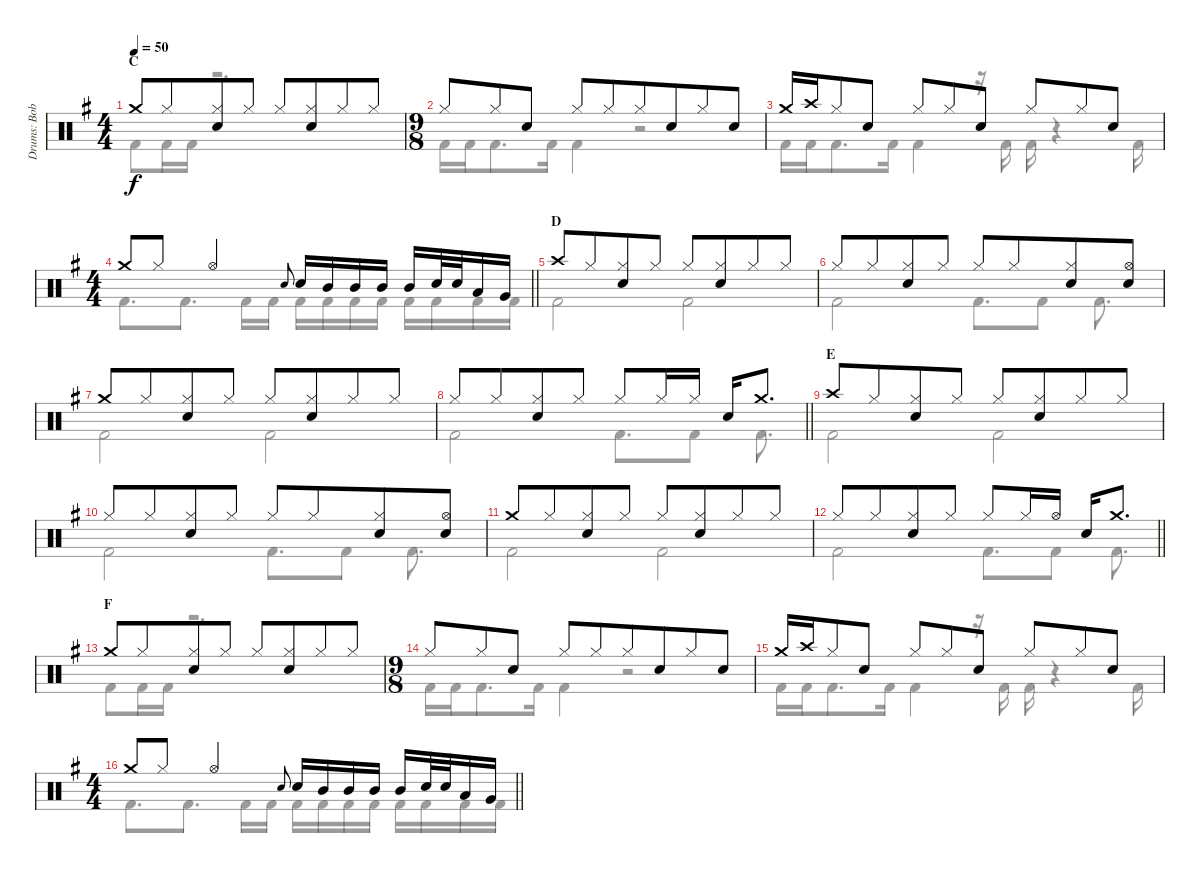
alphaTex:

\track ("Drums: Bobby" "Drums: Bob") {instrument percussion}
\staff {score}
\articulation defaults
\voice
\ts (4 4)
\section ("" "C")
\tempo 50
\clef neutral
\ks g "Crash medium (hit)".8{dy f} "Hi-Hat (closed)".8{beam merge}
("Hi-Hat (closed)" "Snare (hit) 2").8 "Hi-Hat (closed)".8 "Hi-Hat (closed)".8 ("Hi-Hat (closed)" "Snare (hit) 2").8{beam merge} "Hi-Hat (closed)".8 "Hi-Hat (closed)".8 |
\ts (9 8)
"Hi-Hat (closed)".8 "Hi-Hat (closed)".8{beam merge} "Snare (hit) 2".8 "Hi-Hat (closed)".8 "Hi-Hat (closed)".8 "Hi-Hat (closed)".8{beam merge} "Snare (hit) 2".8 "Hi-Hat (closed)".8 "Snare (hit) 2".8 |
"Crash medium (hit)".16 "Crash high (hit)".16 "Hi-Hat (closed)".8 "Snare (hit) 2".8 "Hi-Hat (closed)".8 "Hi-Hat (closed)".8 "Snare (hit) 2".8 "Hi-Hat (closed)".8 "Hi-Hat (closed)".8 "Snare (hit) 2".8 |
\ts (4 4)
\barLineRight lightlight "Crash medium (hit)".8 "Hi-Hat (closed)".8 "Hi-Hat (open)".4 "Electric Snare (hit)".8{gr onbeat} "Snare (hit) 2".16 "Mid Tom (hit)".16 "Mid Tom (hit)".16 "Mid Tom (hit)".16 "Mid Tom (hit)".16 "Electric Snare (hit)".32 "Electric Snare (hit)".32 "Low Tom (hit)".16 "Very Low Tom (hit)".16
|
\section ("" "D")
"Crash high (hit)".8 "Hi-Hat (closed)".8{beam merge} ("Hi-Hat (closed)" "Snare (hit) 2").8 "Hi-Hat (closed)".8 "Hi-Hat (closed)".8 ("Hi-Hat (closed)" "Snare (hit) 2").8{beam merge} "Hi-Hat (closed)".8 "Hi-Hat (closed)".8 |
"Hi-Hat (closed)".8 "Hi-Hat (closed)".8{beam merge} ("Hi-Hat (closed)" "Snare (hit) 2").8 "Hi-Hat (closed)".8 "Hi-Hat (closed)".8 "Hi-Hat (closed)".8{beam merge} ("Hi-Hat (closed)" "Snare (hit) 2").8 ("Hi-Hat (open)" "Snare (hit) 2").8 |
"Crash medium (hit)".8 "Hi-Hat (closed)".8{beam merge} ("Hi-Hat (closed)" "Snare (hit) 2").8 "Hi-Hat (closed)".8 "Hi-Hat (closed)".8 ("Hi-Hat (closed)" "Snare (hit) 2").8{beam merge} "Hi-Hat (closed)".8 "Hi-Hat (closed)".8 |
\barLineRight lightlight "Hi-Hat (closed)".8 "Hi-Hat (closed)".8{beam merge}
("Hi-Hat (closed)" "Snare (hit) 2").8 "Hi-Hat (closed)".8 "Hi-Hat (closed)".8 "Hi-Hat (closed)".16{beam merge} "Hi-Hat (closed)".16 "Snare (hit) 2".16 "Crash medium (hit)".8{d} |
\section ("" "E")
"Crash high (hit)".8 "Hi-Hat (closed)".8{beam merge} ("Hi-Hat (closed)" "Snare (hit) 2").8 "Hi-Hat (closed)".8 "Hi-Hat (closed)".8 ("Hi-Hat (closed)" "Snare (hit) 2").8{beam merge} "Hi-Hat (closed)".8 "Hi-Hat (closed)".8 |
"Hi-Hat (closed)".8 "Hi-Hat (closed)".8{beam merge} ("Hi-Hat (closed)" "Snare (hit) 2").8 "Hi-Hat (closed)".8 "Hi-Hat (closed)".8 "Hi-Hat (closed)".8{beam merge} ("Hi-Hat (closed)" "Snare (hit) 2").8 ("Hi-Hat (open)" "Snare (hit) 2").8 |
"Crash medium (hit)".8 "Hi-Hat (closed)".8{beam merge} ("Hi-Hat (closed)" "Snare (hit) 2").8 "Hi-Hat (closed)".8 "Hi-Hat (closed)".8 ("Hi-Hat (closed)" "Snare (hit) 2").8{beam merge} "Hi-Hat (closed)".8 "Hi-Hat (closed)".8 |
\barLineRight lightlight "Hi-Hat (closed)".8 "Hi-Hat (closed)".8{beam merge}
("Hi-Hat (closed)" "Snare (hit) 2").8 "Hi-Hat (closed)".8 "Hi-Hat (closed)".8 "Hi-Hat (closed)".16{beam merge} "Hi-Hat (open)".16 "Snare (hit) 2".16 "Crash medium (hit)".8{d} |
\section ("" "F")
"Crash medium (hit)".8 "Hi-Hat (closed)".8{beam merge} ("Hi-Hat (closed)" "Snare (hit) 2").8 "Hi-Hat (closed)".8 "Hi-Hat (closed)".8 ("Hi-Hat (closed)" "Snare (hit) 2").8{beam merge} "Hi-Hat (closed)".8 "Hi-Hat (closed)".8 |
\ts (9 8)
"Hi-Hat (closed)".8 "Hi-Hat (closed)".8{beam merge} "Snare (hit) 2".8 "Hi-Hat (closed)".8 "Hi-Hat (closed)".8 "Hi-Hat (closed)".8{beam merge} "Snare (hit) 2".8 "Hi-Hat (closed)".8 "Snare (hit) 2".8 |
"Crash medium (hit)".16 "Crash high (hit)".16 "Hi-Hat (closed)".8 "Snare (hit) 2".8 "Hi-Hat (closed)".8 "Hi-Hat (closed)".8 "Snare (hit) 2".8 "Hi-Hat (closed)".8 "Hi-Hat (closed)".8 "Snare (hit) 2".8 |
\ts (4 4)
\barLineRight lightlight "Crash medium (hit)".8 "Hi-Hat (closed)".8 "Hi-Hat (open)".4 "Electric Snare (hit)".8{gr onbeat} "Snare (hit) 2".16 "Mid Tom (hit)".16 "Mid Tom (hit)".16 "Mid Tom (hit)".16 "Mid Tom (hit)".16 "Electric Snare (hit)".32 "Electric Snare (hit)".32 "Low Tom (hit)".16 "Very Low Tom (hit)".16
\voice
\clef neutral
\ottava regular
\simile none
\ks g "Kick (hit) 2".8{dy f} "Kick (hit) 2".16 "Kick (hit) 2".16
r.2{d} |
"Kick (hit) 2".16 "Kick (hit) 2".16 "Kick (hit) 2".8{d} "Kick (hit) 2".16 "Kick (hit) 2".4 r.2 |
"Kick (hit) 2".16 "Kick (hit) 2".16 "Kick (hit) 2".8{d} "Kick (hit) 2".16 "Kick (hit) 2".4 r.16 "Kick (hit) 2".16 "Kick (hit) 2".16 r.4 "Kick (hit) 2".16 |
\barLineRight lightlight "Kick (hit) 2".8{d} "Kick (hit) 2".8{d} "Kick (hit) 2".16 "Kick (hit) 2".16 "Kick (hit) 2".16 "Kick (hit) 2".16 "Kick (hit) 2".16 "Kick (hit) 2".16 "Kick (hit) 2".16 "Kick (hit) 2".16 "Kick (hit) 2".16 "Kick (hit) 2".16
|
"Kick (hit) 2".2 "Kick (hit) 2".2 |
"Kick (hit) 2".2 "Kick (hit) 2".8{d} "Kick (hit) 2".8 "Kick (hit) 2".8{d} |
"Kick (hit) 2".2 "Kick (hit) 2".2 |
\barLineRight lightlight "Kick (hit) 2".2 "Kick (hit) 2".8{d} "Kick (hit) 2".8 "Kick (hit) 2".8{d}
|
"Kick (hit) 2".2 "Kick (hit) 2".2 |
"Kick (hit) 2".2 "Kick (hit) 2".8{d} "Kick (hit) 2".8 "Kick (hit) 2".8{d} |
"Kick (hit) 2".2 "Kick (hit) 2".2 |
\barLineRight lightlight "Kick (hit) 2".2 "Kick (hit) 2".8{d} "Kick (hit) 2".8 "Kick (hit) 2".8{d}
|
"Kick (hit) 2".8 "Kick (hit) 2".16 "Kick (hit) 2".16 r.2{d} |
"Kick (hit) 2".16 "Kick (hit) 2".16 "Kick (hit) 2".8{d} "Kick (hit) 2".16 "Kick (hit) 2".4 r.2 |
"Kick (hit) 2".16 "Kick (hit) 2".16 "Kick (hit) 2".8{d} "Kick (hit) 2".16 "Kick (hit) 2".4 r.16 "Kick (hit) 2".16 "Kick (hit) 2".16 r.4 "Kick (hit) 2".16 |
\barLineRight lightlight "Kick (hit) 2".8{d} "Kick (hit) 2".8{d} "Kick (hit) 2".16 "Kick (hit) 2".16 "Kick (hit) 2".16 "Kick (hit) 2".16 "Kick (hit) 2".16 "Kick (hit) 2".16 "Kick (hit) 2".16 "Kick (hit) 2".16 "Kick (hit) 2".16 "Kick (hit) 2".16
